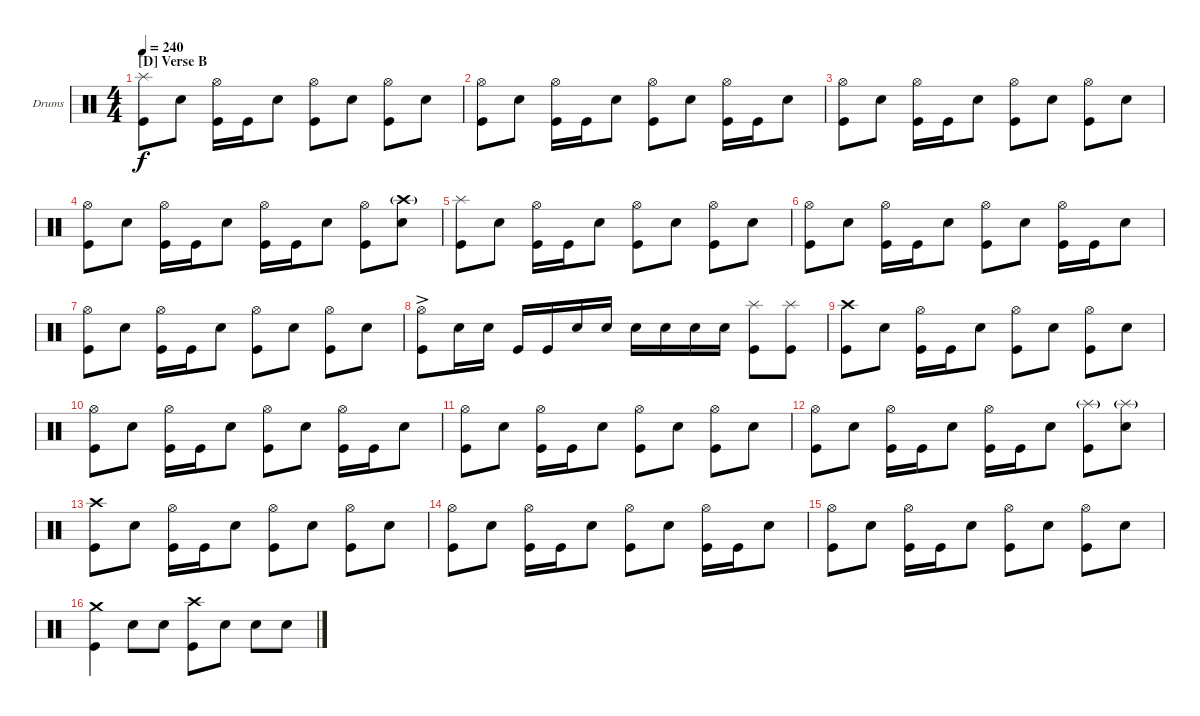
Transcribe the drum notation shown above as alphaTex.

\defaultSystemsLayout 4
\bracketExtendMode groupsimilarinstruments
\firstSystemTrackNameOrientation horizontal
\otherSystemsTrackNameOrientation horizontal
\track ("Drumkit" "Drums") {instrument percussion}
\staff {score}
\articulation defaults
\ts (4 4)
\section ("D" "Verse B")
\tempo 240
\clef neutral
\ks c
("Kick (hit)" "Splash (hit)").8{dy f} "Snare (hit) 2".8 ("Kick (hit)" "Hi-Hat (open)").16 "Kick (hit)".16 "Snare (hit) 2".8 ("Kick (hit)" "Hi-Hat (open)").8 "Snare (hit) 2".8 ("Kick (hit)" "Hi-Hat (open)").8 "Snare (hit) 2".8 |
("Kick (hit)" "Hi-Hat (open)").8 "Snare (hit) 2".8 ("Kick (hit)" "Hi-Hat (open)").16 "Kick (hit)".16 "Snare (hit) 2".8 ("Kick (hit)" "Hi-Hat (open)").8 "Snare (hit) 2".8 ("Kick (hit)" "Hi-Hat (open)").16 "Kick (hit)".16 "Snare (hit) 2".8 |
("Kick (hit)" "Hi-Hat (open)").8 "Snare (hit) 2".8 ("Kick (hit)" "Hi-Hat (open)").16 "Kick (hit)".16 "Snare (hit) 2".8 ("Kick (hit)" "Hi-Hat (open)").8 "Snare (hit) 2".8 ("Kick (hit)" "Hi-Hat (open)").8 "Snare (hit) 2".8 |
("Kick (hit)" "Hi-Hat (open)").8 "Snare (hit) 2".8 ("Kick (hit)" "Hi-Hat (open)").16 "Kick (hit)".16 "Snare (hit) 2".8 ("Kick (hit)" "Hi-Hat (open)").16 "Kick (hit)".16 "Snare (hit) 2".8 ("Kick (hit)" "Hi-Hat (open)").8 ("Snare (hit) 2" "Crash high (hit)"{g}).8 |
("Kick (hit)" "Splash (hit)").8 "Snare (hit) 2".8 ("Kick (hit)" "Hi-Hat (open)").16 "Kick (hit)".16 "Snare (hit) 2".8 ("Kick (hit)" "Hi-Hat (open)").8 "Snare (hit) 2".8 ("Kick (hit)" "Hi-Hat (open)").8 "Snare (hit) 2".8 |
("Kick (hit)" "Hi-Hat (open)").8 "Snare (hit) 2".8 ("Kick (hit)" "Hi-Hat (open)").16 "Kick (hit)".16 "Snare (hit) 2".8 ("Kick (hit)" "Hi-Hat (open)").8 "Snare (hit) 2".8 ("Kick (hit)" "Hi-Hat (open)").16 "Kick (hit)".16 "Snare (hit) 2".8 |
("Kick (hit)" "Hi-Hat (open)").8 "Snare (hit) 2".8 ("Kick (hit)" "Hi-Hat (open)").16 "Kick (hit)".16 "Snare (hit) 2".8 ("Kick (hit)" "Hi-Hat (open)").8 "Snare (hit) 2".8 ("Kick (hit)" "Hi-Hat (open)").8 "Snare (hit) 2".8 |
("Kick (hit)" "Hi-Hat (open)"{ac}).8 "Snare (hit) 2".16 "Snare (hit) 2".16 "Kick (hit)".16 "Kick (hit)".16 "Snare (hit) 2".16 "Snare (hit) 2".16 "Snare (hit) 2".16 "Snare (hit) 2".16 "Snare (hit) 2".16 "Snare (hit) 2".16 ("Kick (hit)" "Splash (hit)").8 ("Kick (hit)" "Splash (hit)").8 |
("Kick (hit)" "Crash high (hit)").8 "Snare (hit) 2".8 ("Kick (hit)" "Hi-Hat (open)").16 "Kick (hit)".16 "Snare (hit) 2".8 ("Kick (hit)" "Hi-Hat (open)").8 "Snare (hit) 2".8 ("Kick (hit)" "Hi-Hat (open)").8 "Snare (hit) 2".8 |
("Kick (hit)" "Hi-Hat (open)").8 "Snare (hit) 2".8 ("Kick (hit)" "Hi-Hat (open)").16 "Kick (hit)".16 "Snare (hit) 2".8 ("Kick (hit)" "Hi-Hat (open)").8 "Snare (hit) 2".8 ("Kick (hit)" "Hi-Hat (open)").16 "Kick (hit)".16 "Snare (hit) 2".8 |
("Kick (hit)" "Hi-Hat (open)").8 "Snare (hit) 2".8 ("Kick (hit)" "Hi-Hat (open)").16 "Kick (hit)".16 "Snare (hit) 2".8 ("Kick (hit)" "Hi-Hat (open)").8 "Snare (hit) 2".8 ("Kick (hit)" "Hi-Hat (open)").8 "Snare (hit) 2".8 |
("Kick (hit)" "Hi-Hat (open)").8 "Snare (hit) 2".8 ("Kick (hit)" "Hi-Hat (open)").16 "Kick (hit)".16 "Snare (hit) 2".8 ("Kick (hit)" "Hi-Hat (open)").16 "Kick (hit)".16 "Snare (hit) 2".8 ("Kick (hit)" "Splash (hit)"{g}).8 ("Snare (hit) 2" "Splash (hit)"{g}).8 |
("Kick (hit)" "Crash high (hit)").8 "Snare (hit) 2".8 ("Kick (hit)" "Hi-Hat (open)").16 "Kick (hit)".16 "Snare (hit) 2".8 ("Kick (hit)" "Hi-Hat (open)").8 "Snare (hit) 2".8 ("Kick (hit)" "Hi-Hat (open)").8 "Snare (hit) 2".8 |
("Kick (hit)" "Hi-Hat (open)").8 "Snare (hit) 2".8 ("Kick (hit)" "Hi-Hat (open)").16 "Kick (hit)".16 "Snare (hit) 2".8 ("Kick (hit)" "Hi-Hat (open)").8 "Snare (hit) 2".8 ("Kick (hit)" "Hi-Hat (open)").16 "Kick (hit)".16 "Snare (hit) 2".8 |
("Kick (hit)" "Hi-Hat (open)").8 "Snare (hit) 2".8 ("Kick (hit)" "Hi-Hat (open)").16 "Kick (hit)".16 "Snare (hit) 2".8 ("Kick (hit)" "Hi-Hat (open)").8 "Snare (hit) 2".8 ("Kick (hit)" "Hi-Hat (open)").8 "Snare (hit) 2".8 |
("Kick (hit)" "Crash medium (hit)").4 "Snare (hit) 2".8 "Snare (hit) 2".8 ("Kick (hit)" "Crash high (hit)").8 "Snare (hit) 2".8 "Snare (hit) 2".8 "Snare (hit) 2".8
